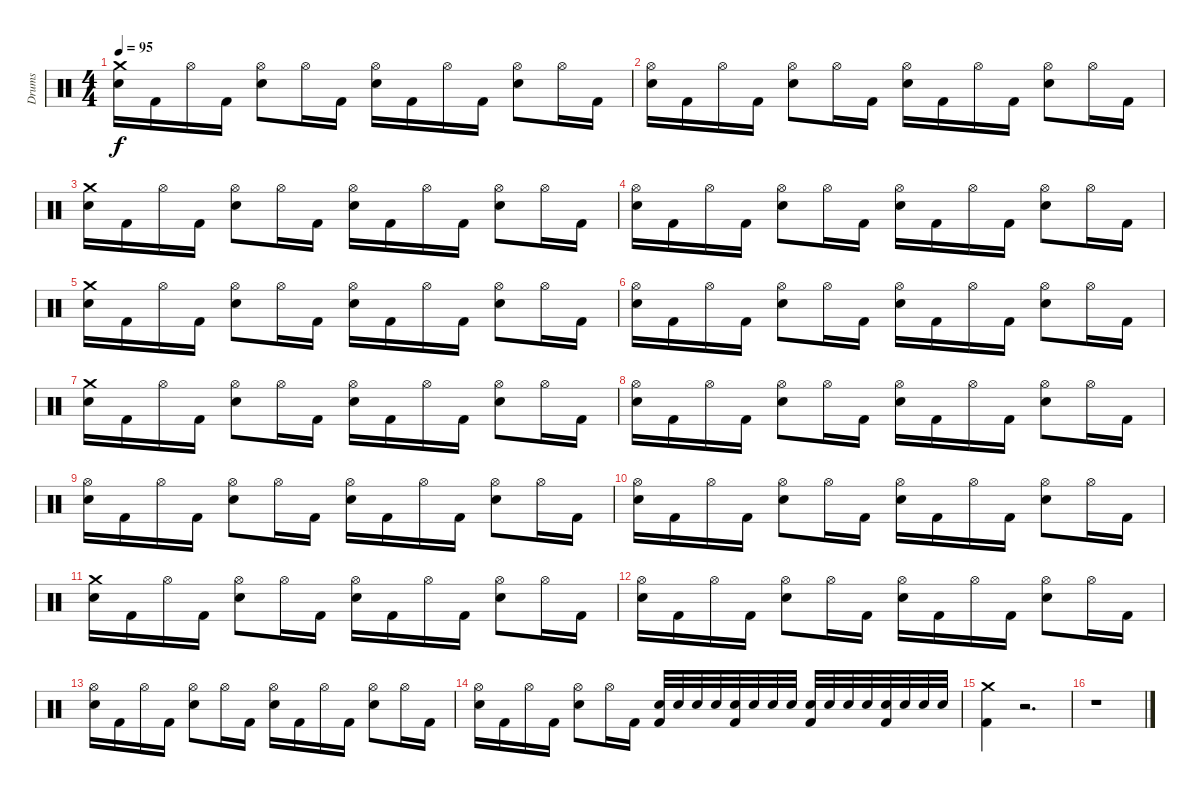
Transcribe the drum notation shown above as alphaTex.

\track ("Drums" "Drums") {instrument percussion}
\staff {score}
\articulation defaults
\ts (4 4)
\tempo 95
\clef neutral
\ks c
("Electric Snare (hit)" "Crash medium (hit)").16{dy f} "Kick (hit) 2".16 "Hi-Hat (open)".16 "Kick (hit) 2".16 ("Electric Snare (hit)" "Hi-Hat (open)").8 "Hi-Hat (open)".16 "Kick (hit) 2".16 ("Electric Snare (hit)" "Hi-Hat (open)").16 "Kick (hit) 2".16 "Hi-Hat (open)".16 "Kick (hit) 2".16 ("Electric Snare (hit)" "Hi-Hat (open)").8 "Hi-Hat (open)".16 "Kick (hit) 2".16 |
("Electric Snare (hit)" "Hi-Hat (open)").16 "Kick (hit) 2".16 "Hi-Hat (open)".16 "Kick (hit) 2".16 ("Electric Snare (hit)" "Hi-Hat (open)").8 "Hi-Hat (open)".16 "Kick (hit) 2".16 ("Electric Snare (hit)" "Hi-Hat (open)").16 "Kick (hit) 2".16 "Hi-Hat (open)".16 "Kick (hit) 2".16 ("Electric Snare (hit)" "Hi-Hat (open)").8 "Hi-Hat (open)".16 "Kick (hit) 2".16 |
("Electric Snare (hit)" "Crash medium (hit)").16 "Kick (hit) 2".16 "Hi-Hat (open)".16 "Kick (hit) 2".16 ("Hi-Hat (open)" "Electric Snare (hit)").8 "Hi-Hat (open)".16 "Kick (hit) 2".16 ("Hi-Hat (open)" "Electric Snare (hit)").16 "Kick (hit) 2".16 "Hi-Hat (open)".16 "Kick (hit) 2".16 ("Hi-Hat (open)" "Electric Snare (hit)").8 "Hi-Hat (open)".16 "Kick (hit) 2".16 |
("Hi-Hat (open)" "Electric Snare (hit)").16 "Kick (hit) 2".16 "Hi-Hat (open)".16 "Kick (hit) 2".16 ("Hi-Hat (open)" "Electric Snare (hit)").8 "Hi-Hat (open)".16 "Kick (hit) 2".16 ("Hi-Hat (open)" "Electric Snare (hit)").16 "Kick (hit) 2".16 "Hi-Hat (open)".16 "Kick (hit) 2".16 ("Hi-Hat (open)" "Electric Snare (hit)").8 "Hi-Hat (open)".16 "Kick (hit) 2".16 |
("Electric Snare (hit)" "Crash medium (hit)").16 "Kick (hit) 2".16 "Hi-Hat (open)".16 "Kick (hit) 2".16 ("Hi-Hat (open)" "Electric Snare (hit)").8 "Hi-Hat (open)".16 "Kick (hit) 2".16 ("Hi-Hat (open)" "Electric Snare (hit)").16 "Kick (hit) 2".16 "Hi-Hat (open)".16 "Kick (hit) 2".16 ("Hi-Hat (open)" "Electric Snare (hit)").8 "Hi-Hat (open)".16 "Kick (hit) 2".16 |
("Hi-Hat (open)" "Electric Snare (hit)").16 "Kick (hit) 2".16 "Hi-Hat (open)".16 "Kick (hit) 2".16 ("Hi-Hat (open)" "Electric Snare (hit)").8 "Hi-Hat (open)".16 "Kick (hit) 2".16 ("Hi-Hat (open)" "Electric Snare (hit)").16 "Kick (hit) 2".16 "Hi-Hat (open)".16 "Kick (hit) 2".16 ("Hi-Hat (open)" "Electric Snare (hit)").8 "Hi-Hat (open)".16 "Kick (hit) 2".16 |
("Electric Snare (hit)" "Crash medium (hit)").16 "Kick (hit) 2".16 "Hi-Hat (open)".16 "Kick (hit) 2".16 ("Hi-Hat (open)" "Electric Snare (hit)").8 "Hi-Hat (open)".16 "Kick (hit) 2".16 ("Hi-Hat (open)" "Electric Snare (hit)").16 "Kick (hit) 2".16 "Hi-Hat (open)".16 "Kick (hit) 2".16 ("Hi-Hat (open)" "Electric Snare (hit)").8 "Hi-Hat (open)".16 "Kick (hit) 2".16 |
("Hi-Hat (open)" "Electric Snare (hit)").16 "Kick (hit) 2".16 "Hi-Hat (open)".16 "Kick (hit) 2".16 ("Hi-Hat (open)" "Electric Snare (hit)").8 "Hi-Hat (open)".16 "Kick (hit) 2".16 ("Hi-Hat (open)" "Electric Snare (hit)").16 "Kick (hit) 2".16 "Hi-Hat (open)".16 "Kick (hit) 2".16 ("Hi-Hat (open)" "Electric Snare (hit)").8 "Hi-Hat (open)".16 "Kick (hit) 2".16 |
("Electric Snare (hit)" "Hi-Hat (open)").16 "Kick (hit) 2".16 "Hi-Hat (open)".16 "Kick (hit) 2".16 ("Electric Snare (hit)" "Hi-Hat (open)").8 "Hi-Hat (open)".16 "Kick (hit) 2".16 ("Electric Snare (hit)" "Hi-Hat (open)").16 "Kick (hit) 2".16 "Hi-Hat (open)".16 "Kick (hit) 2".16 ("Electric Snare (hit)" "Hi-Hat (open)").8 "Hi-Hat (open)".16 "Kick (hit) 2".16 |
("Electric Snare (hit)" "Hi-Hat (open)").16 "Kick (hit) 2".16 "Hi-Hat (open)".16 "Kick (hit) 2".16 ("Electric Snare (hit)" "Hi-Hat (open)").8 "Hi-Hat (open)".16 "Kick (hit) 2".16 ("Electric Snare (hit)" "Hi-Hat (open)").16 "Kick (hit) 2".16 "Hi-Hat (open)".16 "Kick (hit) 2".16 ("Electric Snare (hit)" "Hi-Hat (open)").8 "Hi-Hat (open)".16 "Kick (hit) 2".16 |
("Electric Snare (hit)" "Crash medium (hit)").16 "Kick (hit) 2".16 "Hi-Hat (open)".16 "Kick (hit) 2".16 ("Hi-Hat (open)" "Electric Snare (hit)").8 "Hi-Hat (open)".16 "Kick (hit) 2".16 ("Hi-Hat (open)" "Electric Snare (hit)").16 "Kick (hit) 2".16 "Hi-Hat (open)".16 "Kick (hit) 2".16 ("Hi-Hat (open)" "Electric Snare (hit)").8 "Hi-Hat (open)".16 "Kick (hit) 2".16 |
("Hi-Hat (open)" "Electric Snare (hit)").16 "Kick (hit) 2".16 "Hi-Hat (open)".16 "Kick (hit) 2".16 ("Hi-Hat (open)" "Electric Snare (hit)").8 "Hi-Hat (open)".16 "Kick (hit) 2".16 ("Hi-Hat (open)" "Electric Snare (hit)").16 "Kick (hit) 2".16 "Hi-Hat (open)".16 "Kick (hit) 2".16 ("Hi-Hat (open)" "Electric Snare (hit)").8 "Hi-Hat (open)".16 "Kick (hit) 2".16 |
("Electric Snare (hit)" "Hi-Hat (open)").16 "Kick (hit) 2".16 "Hi-Hat (open)".16 "Kick (hit) 2".16 ("Electric Snare (hit)" "Hi-Hat (open)").8 "Hi-Hat (open)".16 "Kick (hit) 2".16 ("Electric Snare (hit)" "Hi-Hat (open)").16 "Kick (hit) 2".16 "Hi-Hat (open)".16 "Kick (hit) 2".16 ("Electric Snare (hit)" "Hi-Hat (open)").8 "Hi-Hat (open)".16 "Kick (hit) 2".16 |
("Electric Snare (hit)" "Hi-Hat (open)").16 "Kick (hit) 2".16 "Hi-Hat (open)".16 "Kick (hit) 2".16 ("Electric Snare (hit)" "Hi-Hat (open)").8 "Hi-Hat (open)".16 "Kick (hit) 2".16 ("Kick (hit) 2" "Electric Snare (hit)").32 "Electric Snare (hit)".32 "Electric Snare (hit)".32 "Electric Snare (hit)".32 ("Kick (hit) 2" "Electric Snare (hit)").32 "Electric Snare (hit)".32 "Electric Snare (hit)".32 "Electric Snare (hit)".32 ("Kick (hit) 2" "Electric Snare (hit)").32 "Electric Snare (hit)".32 "Electric Snare (hit)".32 "Electric Snare (hit)".32 ("Kick (hit) 2" "Electric Snare (hit)").32 "Electric Snare (hit)".32 "Electric Snare (hit)".32 "Electric Snare (hit)".32 |
("Crash medium (hit)" "Kick (hit) 2").4 r.2{d} |
r.1
